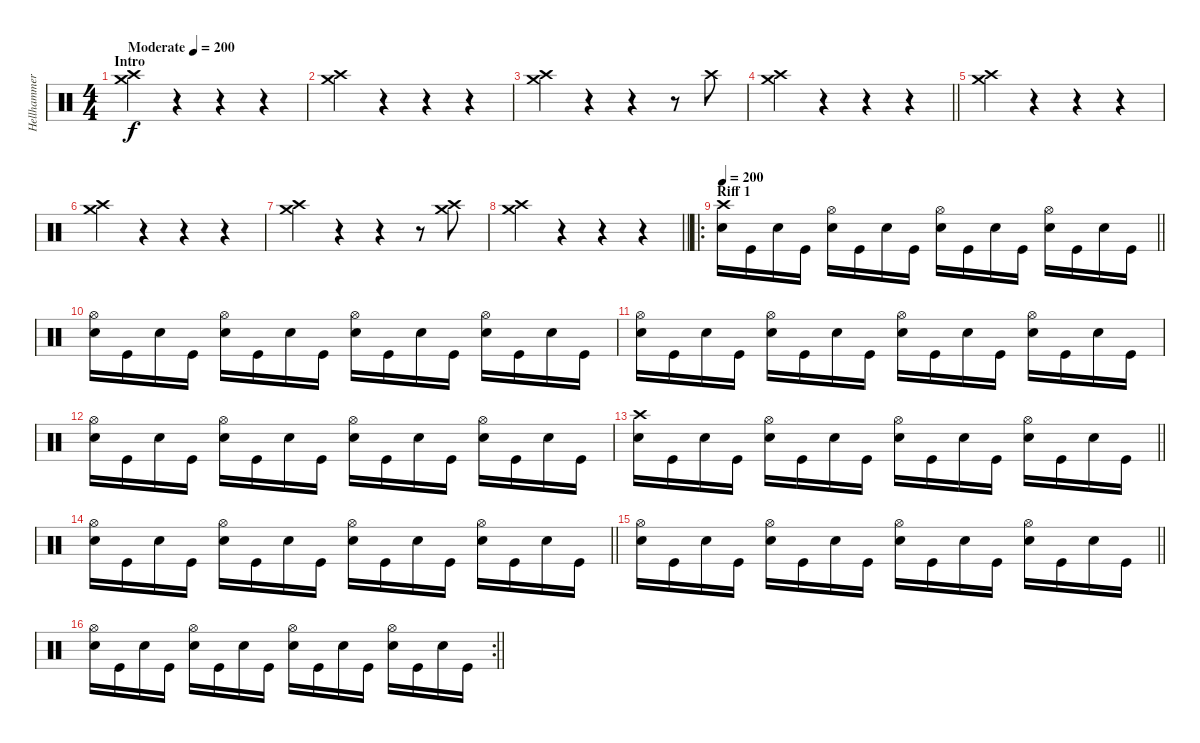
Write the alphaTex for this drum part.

\track ("Hellhammer" "Hellhammer") {instrument percussion}
\staff {score}
\articulation defaults
\ts (4 4)
\section ("" "Intro")
\tempo (200 "Moderate")
\clef neutral
\ks c
("Crash medium (hit)" "Crash high (hit)").4{dy f} r.4 r.4 r.4 |
("Crash medium (hit)" "Crash high (hit)").4 r.4 r.4 r.4 |
("Crash medium (hit)" "Crash high (hit)").4 r.4 r.4 r.8 "Crash high (hit)".8 |
\barLineRight lightlight
("Crash medium (hit)" "Crash high (hit)").4 r.4 r.4 r.4 |
\section ("" "")
("Crash medium (hit)" "Crash high (hit)").4 r.4 r.4 r.4 |
("Crash medium (hit)" "Crash high (hit)").4 r.4 r.4 r.4 |
("Crash medium (hit)" "Crash high (hit)").4 r.4 r.4 r.8 ("Crash medium (hit)" "Crash high (hit)").8 |
\barLineRight lightlight
("Crash medium (hit)" "Crash high (hit)").4 r.4 r.4 r.4 |
\ro
\section ("" "Riff 1")
\tempo 200
\barLineRight lightlight
("Crash high (hit)" "Snare (hit) 2").16 "Kick (hit)".16 "Snare (hit) 2".16 "Kick (hit)".16 ("Hi-Hat (open)" "Snare (hit) 2").16 "Kick (hit)".16 "Snare (hit) 2".16 "Kick (hit)".16 ("Hi-Hat (open)" "Snare (hit) 2").16 "Kick (hit)".16 "Snare (hit) 2".16 "Kick (hit)".16 ("Hi-Hat (open)" "Snare (hit) 2").16 "Kick (hit)".16 "Snare (hit) 2".16 "Kick (hit)".16 |
\section ("" "")
("Hi-Hat (open)" "Snare (hit) 2").16 "Kick (hit)".16 "Snare (hit) 2".16 "Kick (hit)".16 ("Hi-Hat (open)" "Snare (hit) 2").16 "Kick (hit)".16 "Snare (hit) 2".16 "Kick (hit)".16 ("Hi-Hat (open)" "Snare (hit) 2").16 "Kick (hit)".16 "Snare (hit) 2".16 "Kick (hit)".16 ("Hi-Hat (open)" "Snare (hit) 2").16 "Kick (hit)".16 "Snare (hit) 2".16 "Kick (hit)".16 |
("Hi-Hat (open)" "Snare (hit) 2").16 "Kick (hit)".16 "Snare (hit) 2".16 "Kick (hit)".16 ("Hi-Hat (open)" "Snare (hit) 2").16 "Kick (hit)".16 "Snare (hit) 2".16 "Kick (hit)".16 ("Hi-Hat (open)" "Snare (hit) 2").16 "Kick (hit)".16 "Snare (hit) 2".16 "Kick (hit)".16 ("Hi-Hat (open)" "Snare (hit) 2").16 "Kick (hit)".16 "Snare (hit) 2".16 "Kick (hit)".16 |
("Hi-Hat (open)" "Snare (hit) 2").16 "Kick (hit)".16 "Snare (hit) 2".16 "Kick (hit)".16 ("Hi-Hat (open)" "Snare (hit) 2").16 "Kick (hit)".16 "Snare (hit) 2".16 "Kick (hit)".16 ("Hi-Hat (open)" "Snare (hit) 2").16 "Kick (hit)".16 "Snare (hit) 2".16 "Kick (hit)".16 ("Hi-Hat (open)" "Snare (hit) 2").16 "Kick (hit)".16 "Snare (hit) 2".16 "Kick (hit)".16 |
\barLineRight lightlight
("Crash high (hit)" "Snare (hit) 2").16 "Kick (hit)".16 "Snare (hit) 2".16 "Kick (hit)".16 ("Hi-Hat (open)" "Snare (hit) 2").16 "Kick (hit)".16 "Snare (hit) 2".16 "Kick (hit)".16 ("Hi-Hat (open)" "Snare (hit) 2").16 "Kick (hit)".16 "Snare (hit) 2".16 "Kick (hit)".16 ("Hi-Hat (open)" "Snare (hit) 2").16 "Kick (hit)".16 "Snare (hit) 2".16 "Kick (hit)".16 |
\barLineRight lightlight
("Hi-Hat (open)" "Snare (hit) 2").16 "Kick (hit)".16 "Snare (hit) 2".16 "Kick (hit)".16 ("Hi-Hat (open)" "Snare (hit) 2").16 "Kick (hit)".16 "Snare (hit) 2".16 "Kick (hit)".16 ("Hi-Hat (open)" "Snare (hit) 2").16 "Kick (hit)".16 "Snare (hit) 2".16 "Kick (hit)".16 ("Hi-Hat (open)" "Snare (hit) 2").16 "Kick (hit)".16 "Snare (hit) 2".16 "Kick (hit)".16 |
\barLineRight lightlight
("Hi-Hat (open)" "Snare (hit) 2").16 "Kick (hit)".16 "Snare (hit) 2".16 "Kick (hit)".16 ("Hi-Hat (open)" "Snare (hit) 2").16 "Kick (hit)".16 "Snare (hit) 2".16 "Kick (hit)".16 ("Hi-Hat (open)" "Snare (hit) 2").16 "Kick (hit)".16 "Snare (hit) 2".16 "Kick (hit)".16 ("Hi-Hat (open)" "Snare (hit) 2").16 "Kick (hit)".16 "Snare (hit) 2".16 "Kick (hit)".16 |
\rc 2
\section ("" "")
\barLineRight lightlight
("Hi-Hat (open)" "Snare (hit) 2").16 "Kick (hit)".16 "Snare (hit) 2".16 "Kick (hit)".16 ("Hi-Hat (open)" "Snare (hit) 2").16 "Kick (hit)".16 "Snare (hit) 2".16 "Kick (hit)".16 ("Hi-Hat (open)" "Snare (hit) 2").16 "Kick (hit)".16 "Snare (hit) 2".16 "Kick (hit)".16 ("Hi-Hat (open)" "Snare (hit) 2").16 "Kick (hit)".16 "Snare (hit) 2".16 "Kick (hit)".16
